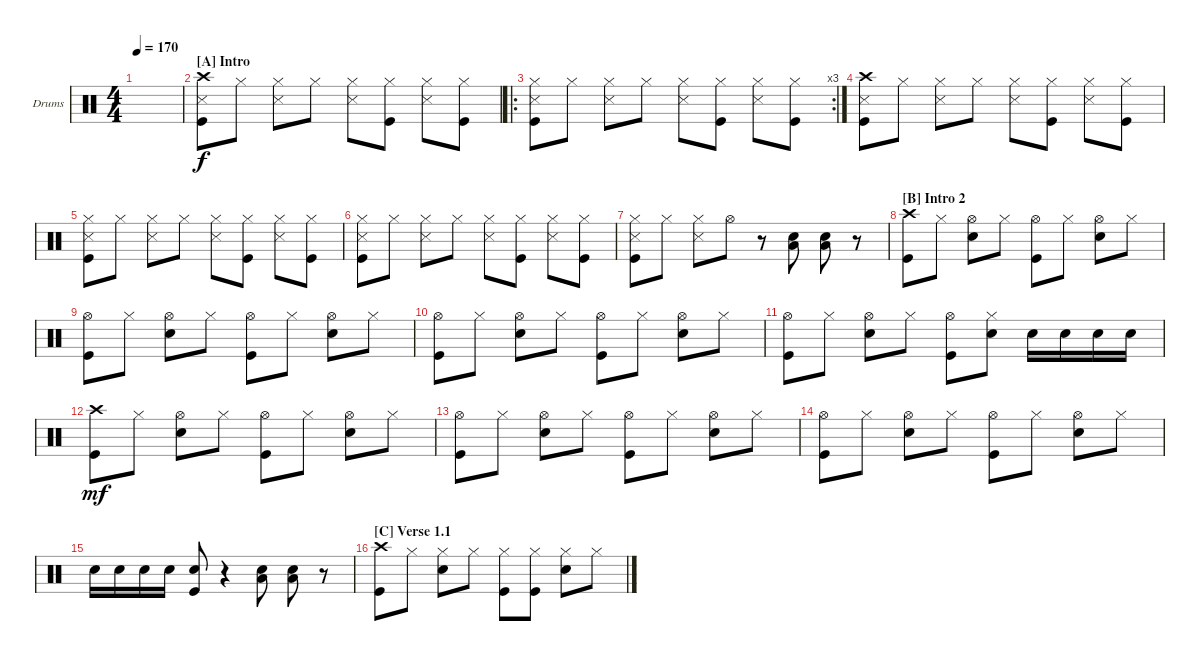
\defaultSystemsLayout 4
\bracketExtendMode groupsimilarinstruments
\firstSystemTrackNameOrientation horizontal
\otherSystemsTrackNameOrientation horizontal
\track ("Drumkit" "Drums") {instrument percussion}
\staff {score}
\articulation defaults
\ts (4 4)
\tempo 170
\clef neutral
\ks c
|
\section ("A" "Intro")
("Crash high (hit)" "Kick (hit)" "Snare (side stick) 3").8 "Hi-Hat (closed)".8 ("Hi-Hat (closed)" "Snare (side stick) 3").8 "Hi-Hat (closed)".8 ("Hi-Hat (closed)" "Snare (side stick) 3").8 ("Hi-Hat (closed)" "Kick (hit)").8 ("Hi-Hat (closed)" "Snare (side stick) 3").8 ("Hi-Hat (closed)" "Kick (hit)").8 |
\ro
\rc 3
("Kick (hit)" "Hi-Hat (closed)" "Snare (side stick) 3").8 "Hi-Hat (closed)".8 ("Hi-Hat (closed)" "Snare (side stick) 3").8 "Hi-Hat (closed)".8 ("Hi-Hat (closed)" "Snare (side stick) 3").8 ("Hi-Hat (closed)" "Kick (hit)").8 ("Hi-Hat (closed)" "Snare (side stick) 3").8 ("Hi-Hat (closed)" "Kick (hit)").8 |
("Crash high (hit)" "Kick (hit)" "Snare (side stick) 3").8 "Hi-Hat (closed)".8 ("Hi-Hat (closed)" "Snare (side stick) 3").8 "Hi-Hat (closed)".8 ("Hi-Hat (closed)" "Snare (side stick) 3").8 ("Hi-Hat (closed)" "Kick (hit)").8 ("Hi-Hat (closed)" "Snare (side stick) 3").8 ("Hi-Hat (closed)" "Kick (hit)").8 |
("Kick (hit)" "Hi-Hat (closed)" "Snare (side stick) 3").8 "Hi-Hat (closed)".8 ("Hi-Hat (closed)" "Snare (side stick) 3").8 "Hi-Hat (closed)".8 ("Hi-Hat (closed)" "Snare (side stick) 3").8 ("Hi-Hat (closed)" "Kick (hit)").8 ("Hi-Hat (closed)" "Snare (side stick) 3").8 ("Hi-Hat (closed)" "Kick (hit)").8 |
("Kick (hit)" "Hi-Hat (closed)" "Snare (side stick) 3").8 "Hi-Hat (closed)".8 ("Hi-Hat (closed)" "Snare (side stick) 3").8 "Hi-Hat (closed)".8 ("Hi-Hat (closed)" "Snare (side stick) 3").8 ("Hi-Hat (closed)" "Kick (hit)").8 ("Hi-Hat (closed)" "Snare (side stick) 3").8 ("Hi-Hat (closed)" "Kick (hit)").8 |
("Kick (hit)" "Hi-Hat (closed)" "Snare (side stick) 3").8 "Hi-Hat (closed)".8 ("Hi-Hat (closed)" "Snare (side stick) 3").8 "Hi-Hat (open)".8 r.8 ("Snare (hit) 2" "Low Tom (hit)").8 ("Snare (hit) 2" "Low Tom (hit)").8 r.8 |
\section ("B" "Intro 2")
("Crash high (hit)" "Kick (hit)").8 "Hi-Hat (closed)".8 ("Hi-Hat (open)" "Snare (hit) 2").8 "Hi-Hat (closed)".8 ("Kick (hit)" "Hi-Hat (open)").8 "Hi-Hat (closed)".8 ("Hi-Hat (open)" "Snare (hit) 2").8 "Hi-Hat (closed)".8 |
("Kick (hit)" "Hi-Hat (open)").8 "Hi-Hat (closed)".8 ("Hi-Hat (open)" "Snare (hit) 2").8 "Hi-Hat (closed)".8 ("Hi-Hat (open)" "Kick (hit)").8 "Hi-Hat (closed)".8 ("Hi-Hat (open)" "Snare (hit) 2").8 "Hi-Hat (closed)".8 |
("Kick (hit)" "Hi-Hat (open)").8 "Hi-Hat (closed)".8 ("Hi-Hat (open)" "Snare (hit) 2").8 "Hi-Hat (closed)".8 ("Hi-Hat (open)" "Kick (hit)").8 "Hi-Hat (closed)".8 ("Hi-Hat (open)" "Snare (hit) 2").8 "Hi-Hat (closed)".8 |
("Kick (hit)" "Hi-Hat (open)").8 "Hi-Hat (closed)".8 ("Hi-Hat (open)" "Snare (hit) 2").8 "Hi-Hat (closed)".8 ("Hi-Hat (open)" "Kick (hit)").8 ("Hi-Hat (closed)" "Snare (hit) 2").8 "Snare (hit) 2".16{dy f} "Snare (hit) 2".16 "Snare (hit) 2".16 "Snare (hit) 2".16 |
("Crash high (hit)" "Kick (hit)").8{dy mf} "Hi-Hat (closed)".8 ("Hi-Hat (open)" "Snare (hit) 2").8 "Hi-Hat (closed)".8 ("Kick (hit)" "Hi-Hat (open)").8 "Hi-Hat (closed)".8 ("Hi-Hat (open)" "Snare (hit) 2").8 "Hi-Hat (closed)".8 |
("Kick (hit)" "Hi-Hat (open)").8 "Hi-Hat (closed)".8 ("Hi-Hat (open)" "Snare (hit) 2").8 "Hi-Hat (closed)".8 ("Hi-Hat (open)" "Kick (hit)").8 "Hi-Hat (closed)".8 ("Hi-Hat (open)" "Snare (hit) 2").8 "Hi-Hat (closed)".8 |
("Kick (hit)" "Hi-Hat (open)").8 "Hi-Hat (closed)".8 ("Hi-Hat (open)" "Snare (hit) 2").8 "Hi-Hat (closed)".8 ("Hi-Hat (open)" "Kick (hit)").8 "Hi-Hat (closed)".8 ("Hi-Hat (open)" "Snare (hit) 2").8 "Hi-Hat (closed)".8 |
"Snare (hit) 2".16 "Snare (hit) 2".16 "Snare (hit) 2".16 "Snare (hit) 2".16 ("Snare (hit) 2" "Kick (hit)").8 r.4 ("Snare (hit) 2" "Low Tom (hit)").8 ("Snare (hit) 2" "Low Tom (hit)").8 r.8 |
\section ("C" "Verse 1.1")
("Kick (hit)" "Crash high (hit)").8 "Hi-Hat (closed)".8 ("Hi-Hat (closed)" "Snare (hit) 2").8 "Hi-Hat (closed)".8 ("Hi-Hat (closed)" "Kick (hit)").8 ("Hi-Hat (closed)" "Kick (hit)").8 ("Hi-Hat (closed)" "Snare (hit) 2").8 "Hi-Hat (closed)".8
